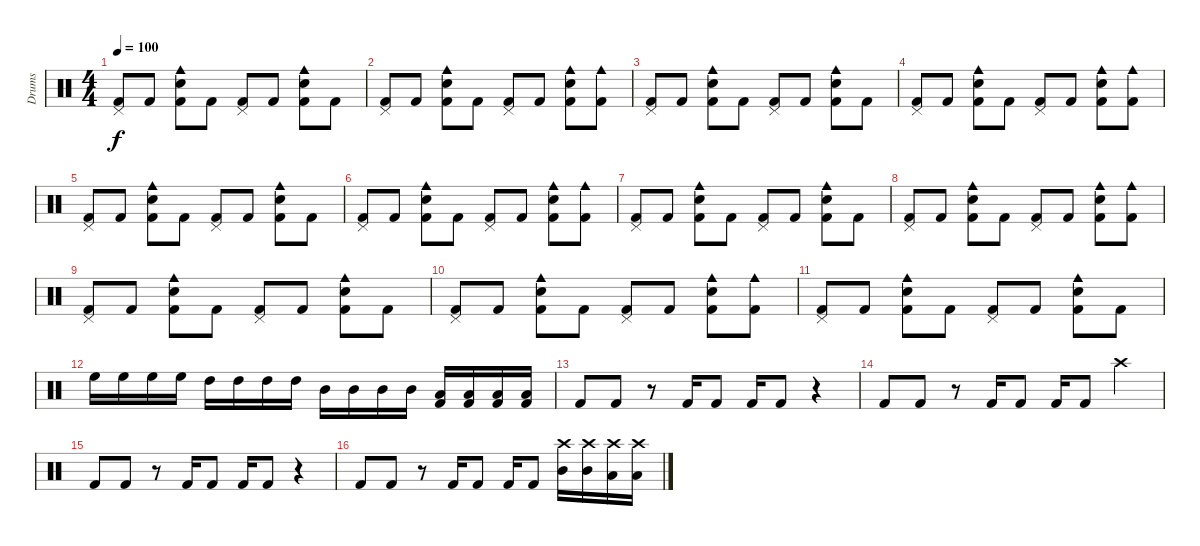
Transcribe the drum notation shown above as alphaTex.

\track ("Drums" "Drums") {instrument percussion}
\staff {score}
\articulation defaults
\ts (4 4)
\tempo 100
\clef neutral
\ks c
("Kick (hit) 2" "Pedal Hi-Hat (hit)").8{dy f} "Kick (hit) 2".8 ("Kick (hit) 2" "Snare (hit) 2" "Cowbell medium (hit)").8 "Kick (hit) 2".8 ("Kick (hit) 2" "Pedal Hi-Hat (hit)").8 "Kick (hit) 2".8 ("Kick (hit) 2" "Snare (hit) 2" "Cowbell medium (hit)").8 "Kick (hit) 2".8 |
("Kick (hit) 2" "Pedal Hi-Hat (hit)").8 "Kick (hit) 2".8 ("Kick (hit) 2" "Snare (hit) 2" "Cowbell medium (hit)").8 "Kick (hit) 2".8 ("Kick (hit) 2" "Pedal Hi-Hat (hit)").8 "Kick (hit) 2".8 ("Kick (hit) 2" "Snare (hit) 2" "Cowbell medium (hit)").8 ("Kick (hit) 2" "Cowbell medium (hit)").8 |
("Kick (hit) 2" "Pedal Hi-Hat (hit)").8 "Kick (hit) 2".8 ("Kick (hit) 2" "Snare (hit) 2" "Cowbell medium (hit)").8 "Kick (hit) 2".8 ("Kick (hit) 2" "Pedal Hi-Hat (hit)").8 "Kick (hit) 2".8 ("Kick (hit) 2" "Snare (hit) 2" "Cowbell medium (hit)").8 "Kick (hit) 2".8 |
("Kick (hit) 2" "Pedal Hi-Hat (hit)").8 "Kick (hit) 2".8 ("Kick (hit) 2" "Snare (hit) 2" "Cowbell medium (hit)").8 "Kick (hit) 2".8 ("Kick (hit) 2" "Pedal Hi-Hat (hit)").8 "Kick (hit) 2".8 ("Kick (hit) 2" "Snare (hit) 2" "Cowbell medium (hit)").8 ("Kick (hit) 2" "Cowbell medium (hit)").8 |
("Kick (hit) 2" "Pedal Hi-Hat (hit)").8 "Kick (hit) 2".8 ("Kick (hit) 2" "Snare (hit) 2" "Cowbell medium (hit)").8 "Kick (hit) 2".8 ("Kick (hit) 2" "Pedal Hi-Hat (hit)").8 "Kick (hit) 2".8 ("Kick (hit) 2" "Snare (hit) 2" "Cowbell medium (hit)").8 "Kick (hit) 2".8 |
("Kick (hit) 2" "Pedal Hi-Hat (hit)").8 "Kick (hit) 2".8 ("Kick (hit) 2" "Snare (hit) 2" "Cowbell medium (hit)").8 "Kick (hit) 2".8 ("Kick (hit) 2" "Pedal Hi-Hat (hit)").8 "Kick (hit) 2".8 ("Kick (hit) 2" "Snare (hit) 2" "Cowbell medium (hit)").8 ("Kick (hit) 2" "Cowbell medium (hit)").8 |
("Kick (hit) 2" "Pedal Hi-Hat (hit)").8 "Kick (hit) 2".8 ("Kick (hit) 2" "Snare (hit) 2" "Cowbell medium (hit)").8 "Kick (hit) 2".8 ("Kick (hit) 2" "Pedal Hi-Hat (hit)").8 "Kick (hit) 2".8 ("Kick (hit) 2" "Snare (hit) 2" "Cowbell medium (hit)").8 "Kick (hit) 2".8 |
("Kick (hit) 2" "Pedal Hi-Hat (hit)").8 "Kick (hit) 2".8 ("Kick (hit) 2" "Snare (hit) 2" "Cowbell medium (hit)").8 "Kick (hit) 2".8 ("Kick (hit) 2" "Pedal Hi-Hat (hit)").8 "Kick (hit) 2".8 ("Kick (hit) 2" "Snare (hit) 2" "Cowbell medium (hit)").8 ("Kick (hit) 2" "Cowbell medium (hit)").8 |
("Kick (hit) 2" "Pedal Hi-Hat (hit)").8 "Kick (hit) 2".8 ("Kick (hit) 2" "Snare (hit) 2" "Cowbell medium (hit)").8 "Kick (hit) 2".8 ("Kick (hit) 2" "Pedal Hi-Hat (hit)").8 "Kick (hit) 2".8 ("Kick (hit) 2" "Snare (hit) 2" "Cowbell medium (hit)").8 "Kick (hit) 2".8 |
("Kick (hit) 2" "Pedal Hi-Hat (hit)").8 "Kick (hit) 2".8 ("Kick (hit) 2" "Snare (hit) 2" "Cowbell medium (hit)").8 "Kick (hit) 2".8 ("Kick (hit) 2" "Pedal Hi-Hat (hit)").8 "Kick (hit) 2".8 ("Kick (hit) 2" "Snare (hit) 2" "Cowbell medium (hit)").8 ("Kick (hit) 2" "Cowbell medium (hit)").8 |
("Kick (hit) 2" "Pedal Hi-Hat (hit)").8 "Kick (hit) 2".8 ("Kick (hit) 2" "Snare (hit) 2" "Cowbell medium (hit)").8 "Kick (hit) 2".8 ("Kick (hit) 2" "Pedal Hi-Hat (hit)").8 "Kick (hit) 2".8 ("Kick (hit) 2" "Snare (hit) 2" "Cowbell medium (hit)").8 "Kick (hit) 2".8 |
"High Floor Tom (hit)".16 "High Floor Tom (hit)".16 "High Floor Tom (hit)".16 "High Floor Tom (hit)".16 "High Tom (hit)".16 "High Tom (hit)".16 "High Tom (hit)".16 "High Tom (hit)".16 "Mid Tom (hit)".16 "Mid Tom (hit)".16 "Mid Tom (hit)".16 "Mid Tom (hit)".16 ("Low Tom (hit)" "Kick (hit) 2").16 ("Low Tom (hit)" "Kick (hit) 2").16 ("Low Tom (hit)" "Kick (hit) 2").16 ("Low Tom (hit)" "Kick (hit) 2").16 |
"Kick (hit) 2".8 "Kick (hit) 2".8 r.8 "Kick (hit) 2".16 "Kick (hit) 2".8 "Kick (hit) 2".16 "Kick (hit) 2".8 r.4 |
"Kick (hit) 2".8 "Kick (hit) 2".8 r.8 "Kick (hit) 2".16 "Kick (hit) 2".8 "Kick (hit) 2".16 "Kick (hit) 2".8 "Crash high (hit)".4 |
"Kick (hit) 2".8 "Kick (hit) 2".8 r.8 "Kick (hit) 2".16 "Kick (hit) 2".8 "Kick (hit) 2".16 "Kick (hit) 2".8 r.4 |
"Kick (hit) 2".8 "Kick (hit) 2".8 r.8 "Kick (hit) 2".16 "Kick (hit) 2".8 "Kick (hit) 2".16 "Kick (hit) 2".8 ("Crash high (hit)" "Mid Tom (hit)").16 ("Crash high (hit)" "Mid Tom (hit)").16 ("Crash high (hit)" "Low Tom (hit)").16 ("Crash high (hit)" "Low Tom (hit)").16
